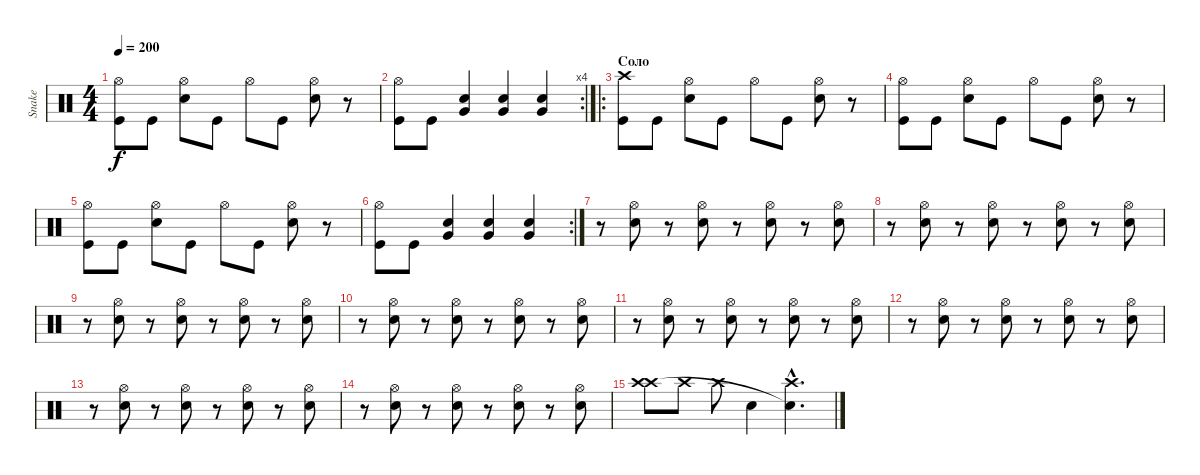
\track ("Snake" "Snake") {instrument percussion}
\staff {score}
\articulation defaults
\ts (4 4)
\tempo 200
\clef neutral
\ks c
("Hi-Hat (open)" "Kick (hit)").8{dy f} "Kick (hit)".8 ("Hi-Hat (open)" "Electric Snare (hit)").8 "Kick (hit)".8 "Hi-Hat (open)".8 "Kick (hit)".8 ("Hi-Hat (open)" "Electric Snare (hit)").8 r.8 |
\rc 4
("Hi-Hat (open)" "Kick (hit)").8 "Kick (hit)".8 ("Very Low Tom (hit)" "Electric Snare (hit)").4 ("Very Low Tom (hit)" "Electric Snare (hit)").4 ("Very Low Tom (hit)" "Electric Snare (hit)").4 |
\ro
\section ("" "Соло")
("Crash high (hit)" "Kick (hit)").8{volume 11} "Kick (hit)".8 ("Hi-Hat (open)" "Electric Snare (hit)").8 "Kick (hit)".8 "Hi-Hat (open)".8 "Kick (hit)".8 ("Hi-Hat (open)" "Electric Snare (hit)").8 r.8 |
("Hi-Hat (open)" "Kick (hit)").8 "Kick (hit)".8 ("Hi-Hat (open)" "Electric Snare (hit)").8 "Kick (hit)".8 "Hi-Hat (open)".8 "Kick (hit)".8 ("Hi-Hat (open)" "Electric Snare (hit)").8 r.8 |
("Hi-Hat (open)" "Kick (hit)").8 "Kick (hit)".8 ("Hi-Hat (open)" "Electric Snare (hit)").8 "Kick (hit)".8 "Hi-Hat (open)".8 "Kick (hit)".8 ("Hi-Hat (open)" "Electric Snare (hit)").8 r.8 |
\rc 2
("Hi-Hat (open)" "Kick (hit)").8 "Kick (hit)".8 ("Very Low Tom (hit)" "Electric Snare (hit)").4 ("Very Low Tom (hit)" "Electric Snare (hit)").4 ("Very Low Tom (hit)" "Electric Snare (hit)").4 |
r.8 ("Hi-Hat (open)" "Electric Snare (hit)").8 r.8 ("Hi-Hat (open)" "Electric Snare (hit)").8 r.8 ("Hi-Hat (open)" "Electric Snare (hit)").8 r.8 ("Hi-Hat (open)" "Electric Snare (hit)").8 |
r.8 ("Hi-Hat (open)" "Electric Snare (hit)").8 r.8 ("Hi-Hat (open)" "Electric Snare (hit)").8 r.8 ("Hi-Hat (open)" "Electric Snare (hit)").8 r.8 ("Hi-Hat (open)" "Electric Snare (hit)").8 |
r.8 ("Hi-Hat (open)" "Electric Snare (hit)").8 r.8 ("Hi-Hat (open)" "Electric Snare (hit)").8 r.8 ("Hi-Hat (open)" "Electric Snare (hit)").8 r.8 ("Hi-Hat (open)" "Electric Snare (hit)").8 |
r.8 ("Hi-Hat (open)" "Electric Snare (hit)").8 r.8 ("Hi-Hat (open)" "Electric Snare (hit)").8 r.8 ("Hi-Hat (open)" "Electric Snare (hit)").8 r.8 ("Hi-Hat (open)" "Electric Snare (hit)").8 |
r.8 ("Hi-Hat (open)" "Electric Snare (hit)").8 r.8 ("Hi-Hat (open)" "Electric Snare (hit)").8 r.8 ("Hi-Hat (open)" "Electric Snare (hit)").8 r.8 ("Hi-Hat (open)" "Electric Snare (hit)").8 |
r.8 ("Hi-Hat (open)" "Electric Snare (hit)").8 r.8 ("Hi-Hat (open)" "Electric Snare (hit)").8 r.8 ("Hi-Hat (open)" "Electric Snare (hit)").8 r.8 ("Hi-Hat (open)" "Electric Snare (hit)").8 |
r.8 ("Hi-Hat (open)" "Electric Snare (hit)").8 r.8 ("Hi-Hat (open)" "Electric Snare (hit)").8 r.8 ("Hi-Hat (open)" "Electric Snare (hit)").8 r.8 ("Hi-Hat (open)" "Electric Snare (hit)").8 |
r.8 ("Hi-Hat (open)" "Electric Snare (hit)").8 r.8 ("Hi-Hat (open)" "Electric Snare (hit)").8 r.8 ("Hi-Hat (open)" "Electric Snare (hit)").8 r.8 ("Hi-Hat (open)" "Electric Snare (hit)").8 |
("Crash high (hit)" "Crash high (hit)").8 "Crash high (hit)".8 "Crash high (hit)".8 "Electric Snare (hit)".4 ("Crash high (hit)"{hac} "Snare (hit)"{hac t}).4{d}
